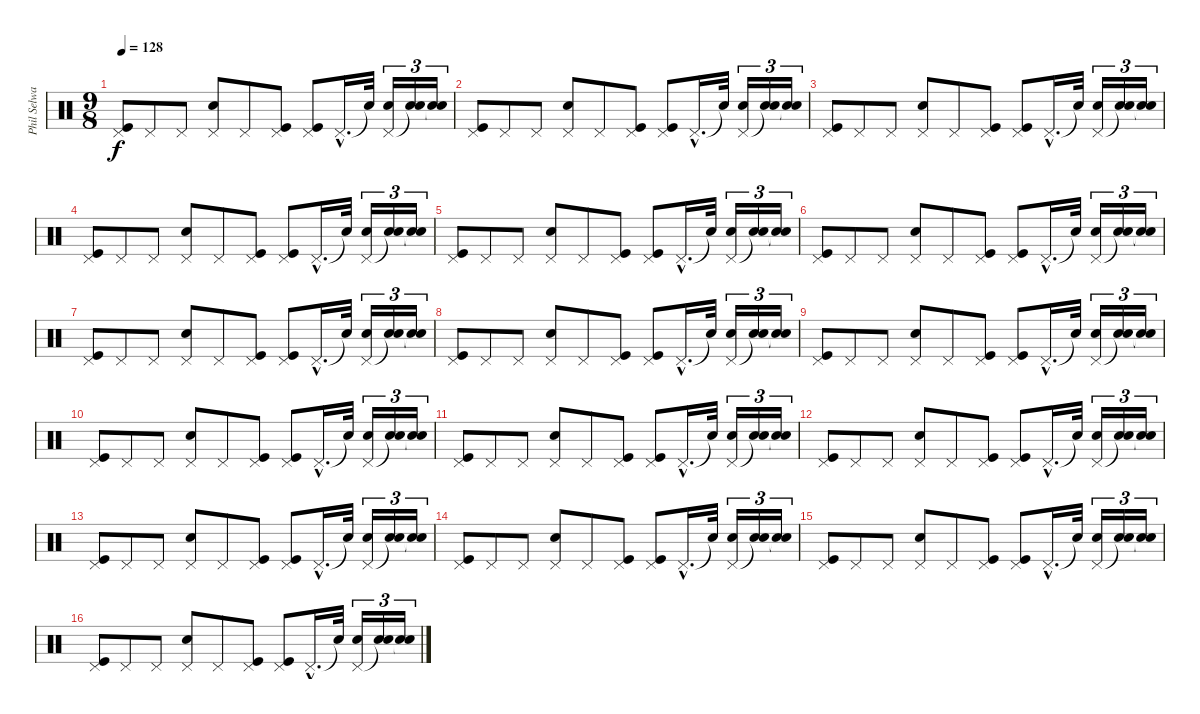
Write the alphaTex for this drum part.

\track ("Phil Selway - Drums" "Phil Selwa") {instrument percussion}
\staff {score}
\articulation defaults
\ts (9 8)
\tempo 128
\clef neutral
\ks c
("Pedal Hi-Hat (hit)" "Kick (hit)").8{dy f} "Pedal Hi-Hat (hit)".8 "Pedal Hi-Hat (hit)".8 ("Pedal Hi-Hat (hit)" "Snare (hit) 2").8 "Pedal Hi-Hat (hit)".8 ("Pedal Hi-Hat (hit)" "Kick (hit)").8 ("Pedal Hi-Hat (hit)" "Kick (hit)").8 "Pedal Hi-Hat (hit)"{hac}.16{d} "Snare (hit)"{t}.32 ("Pedal Hi-Hat (hit)" "Snare (hit) 2").16{tu (3 2)} ("Snare (hit)"{t} "Snare (hit) 2").16{tu (3 2)} ("Snare (hit)"{t} "Snare (hit) 2").16{tu (3 2)} |
("Pedal Hi-Hat (hit)" "Kick (hit)").8 "Pedal Hi-Hat (hit)".8 "Pedal Hi-Hat (hit)".8 ("Pedal Hi-Hat (hit)" "Snare (hit) 2").8 "Pedal Hi-Hat (hit)".8 ("Pedal Hi-Hat (hit)" "Kick (hit)").8 ("Pedal Hi-Hat (hit)" "Kick (hit)").8 "Pedal Hi-Hat (hit)"{hac}.16{d} "Snare (hit)"{t}.32 ("Pedal Hi-Hat (hit)" "Snare (hit) 2").16{tu (3 2)} ("Snare (hit)"{t} "Snare (hit) 2").16{tu (3 2)} ("Snare (hit)"{t} "Snare (hit) 2").16{tu (3 2)} |
("Pedal Hi-Hat (hit)" "Kick (hit)").8 "Pedal Hi-Hat (hit)".8 "Pedal Hi-Hat (hit)".8 ("Pedal Hi-Hat (hit)" "Snare (hit) 2").8 "Pedal Hi-Hat (hit)".8 ("Pedal Hi-Hat (hit)" "Kick (hit)").8 ("Pedal Hi-Hat (hit)" "Kick (hit)").8 "Pedal Hi-Hat (hit)"{hac}.16{d} "Snare (hit)"{t}.32 ("Pedal Hi-Hat (hit)" "Snare (hit) 2").16{tu (3 2)} ("Snare (hit)"{t} "Snare (hit) 2").16{tu (3 2)} ("Snare (hit)"{t} "Snare (hit) 2").16{tu (3 2)} |
("Pedal Hi-Hat (hit)" "Kick (hit)").8 "Pedal Hi-Hat (hit)".8 "Pedal Hi-Hat (hit)".8 ("Pedal Hi-Hat (hit)" "Snare (hit) 2").8 "Pedal Hi-Hat (hit)".8 ("Pedal Hi-Hat (hit)" "Kick (hit)").8 ("Pedal Hi-Hat (hit)" "Kick (hit)").8 "Pedal Hi-Hat (hit)"{hac}.16{d} "Snare (hit)"{t}.32 ("Pedal Hi-Hat (hit)" "Snare (hit) 2").16{tu (3 2)} ("Snare (hit)"{t} "Snare (hit) 2").16{tu (3 2)} ("Snare (hit)"{t} "Snare (hit) 2").16{tu (3 2)} |
("Pedal Hi-Hat (hit)" "Kick (hit)").8 "Pedal Hi-Hat (hit)".8 "Pedal Hi-Hat (hit)".8 ("Pedal Hi-Hat (hit)" "Snare (hit) 2").8 "Pedal Hi-Hat (hit)".8 ("Pedal Hi-Hat (hit)" "Kick (hit)").8 ("Pedal Hi-Hat (hit)" "Kick (hit)").8 "Pedal Hi-Hat (hit)"{hac}.16{d} "Snare (hit)"{t}.32 ("Pedal Hi-Hat (hit)" "Snare (hit) 2").16{tu (3 2)} ("Snare (hit)"{t} "Snare (hit) 2").16{tu (3 2)} ("Snare (hit)"{t} "Snare (hit) 2").16{tu (3 2)} |
("Pedal Hi-Hat (hit)" "Kick (hit)").8 "Pedal Hi-Hat (hit)".8 "Pedal Hi-Hat (hit)".8 ("Pedal Hi-Hat (hit)" "Snare (hit) 2").8 "Pedal Hi-Hat (hit)".8 ("Pedal Hi-Hat (hit)" "Kick (hit)").8 ("Pedal Hi-Hat (hit)" "Kick (hit)").8 "Pedal Hi-Hat (hit)"{hac}.16{d} "Snare (hit)"{t}.32 ("Pedal Hi-Hat (hit)" "Snare (hit) 2").16{tu (3 2)} ("Snare (hit)"{t} "Snare (hit) 2").16{tu (3 2)} ("Snare (hit)"{t} "Snare (hit) 2").16{tu (3 2)} |
("Pedal Hi-Hat (hit)" "Kick (hit)").8 "Pedal Hi-Hat (hit)".8 "Pedal Hi-Hat (hit)".8 ("Pedal Hi-Hat (hit)" "Snare (hit) 2").8 "Pedal Hi-Hat (hit)".8 ("Pedal Hi-Hat (hit)" "Kick (hit)").8 ("Pedal Hi-Hat (hit)" "Kick (hit)").8 "Pedal Hi-Hat (hit)"{hac}.16{d} "Snare (hit)"{t}.32 ("Pedal Hi-Hat (hit)" "Snare (hit) 2").16{tu (3 2)} ("Snare (hit)"{t} "Snare (hit) 2").16{tu (3 2)} ("Snare (hit)"{t} "Snare (hit) 2").16{tu (3 2)} |
("Pedal Hi-Hat (hit)" "Kick (hit)").8 "Pedal Hi-Hat (hit)".8 "Pedal Hi-Hat (hit)".8 ("Pedal Hi-Hat (hit)" "Snare (hit) 2").8 "Pedal Hi-Hat (hit)".8 ("Pedal Hi-Hat (hit)" "Kick (hit)").8 ("Pedal Hi-Hat (hit)" "Kick (hit)").8 "Pedal Hi-Hat (hit)"{hac}.16{d} "Snare (hit)"{t}.32 ("Pedal Hi-Hat (hit)" "Snare (hit) 2").16{tu (3 2)} ("Snare (hit)"{t} "Snare (hit) 2").16{tu (3 2)} ("Snare (hit)"{t} "Snare (hit) 2").16{tu (3 2)} |
("Pedal Hi-Hat (hit)" "Kick (hit)").8 "Pedal Hi-Hat (hit)".8 "Pedal Hi-Hat (hit)".8 ("Pedal Hi-Hat (hit)" "Snare (hit) 2").8 "Pedal Hi-Hat (hit)".8 ("Pedal Hi-Hat (hit)" "Kick (hit)").8 ("Pedal Hi-Hat (hit)" "Kick (hit)").8 "Pedal Hi-Hat (hit)"{hac}.16{d} "Snare (hit)"{t}.32 ("Pedal Hi-Hat (hit)" "Snare (hit) 2").16{tu (3 2)} ("Snare (hit)"{t} "Snare (hit) 2").16{tu (3 2)} ("Snare (hit)"{t} "Snare (hit) 2").16{tu (3 2)} |
("Pedal Hi-Hat (hit)" "Kick (hit)").8 "Pedal Hi-Hat (hit)".8 "Pedal Hi-Hat (hit)".8 ("Pedal Hi-Hat (hit)" "Snare (hit) 2").8 "Pedal Hi-Hat (hit)".8 ("Pedal Hi-Hat (hit)" "Kick (hit)").8 ("Pedal Hi-Hat (hit)" "Kick (hit)").8 "Pedal Hi-Hat (hit)"{hac}.16{d} "Snare (hit)"{t}.32 ("Pedal Hi-Hat (hit)" "Snare (hit) 2").16{tu (3 2)} ("Snare (hit)"{t} "Snare (hit) 2").16{tu (3 2)} ("Snare (hit)"{t} "Snare (hit) 2").16{tu (3 2)} |
("Pedal Hi-Hat (hit)" "Kick (hit)").8 "Pedal Hi-Hat (hit)".8 "Pedal Hi-Hat (hit)".8 ("Pedal Hi-Hat (hit)" "Snare (hit) 2").8 "Pedal Hi-Hat (hit)".8 ("Pedal Hi-Hat (hit)" "Kick (hit)").8 ("Pedal Hi-Hat (hit)" "Kick (hit)").8 "Pedal Hi-Hat (hit)"{hac}.16{d} "Snare (hit)"{t}.32 ("Pedal Hi-Hat (hit)" "Snare (hit) 2").16{tu (3 2)} ("Snare (hit)"{t} "Snare (hit) 2").16{tu (3 2)} ("Snare (hit)"{t} "Snare (hit) 2").16{tu (3 2)} |
("Pedal Hi-Hat (hit)" "Kick (hit)").8 "Pedal Hi-Hat (hit)".8 "Pedal Hi-Hat (hit)".8 ("Pedal Hi-Hat (hit)" "Snare (hit) 2").8 "Pedal Hi-Hat (hit)".8 ("Pedal Hi-Hat (hit)" "Kick (hit)").8 ("Pedal Hi-Hat (hit)" "Kick (hit)").8 "Pedal Hi-Hat (hit)"{hac}.16{d} "Snare (hit)"{t}.32 ("Pedal Hi-Hat (hit)" "Snare (hit) 2").16{tu (3 2)} ("Snare (hit)"{t} "Snare (hit) 2").16{tu (3 2)} ("Snare (hit)"{t} "Snare (hit) 2").16{tu (3 2)} |
("Pedal Hi-Hat (hit)" "Kick (hit)").8 "Pedal Hi-Hat (hit)".8 "Pedal Hi-Hat (hit)".8 ("Pedal Hi-Hat (hit)" "Snare (hit) 2").8 "Pedal Hi-Hat (hit)".8 ("Pedal Hi-Hat (hit)" "Kick (hit)").8 ("Pedal Hi-Hat (hit)" "Kick (hit)").8 "Pedal Hi-Hat (hit)"{hac}.16{d} "Snare (hit)"{t}.32 ("Pedal Hi-Hat (hit)" "Snare (hit) 2").16{tu (3 2)} ("Snare (hit)"{t} "Snare (hit) 2").16{tu (3 2)} ("Snare (hit)"{t} "Snare (hit) 2").16{tu (3 2)} |
("Pedal Hi-Hat (hit)" "Kick (hit)").8 "Pedal Hi-Hat (hit)".8 "Pedal Hi-Hat (hit)".8 ("Pedal Hi-Hat (hit)" "Snare (hit) 2").8 "Pedal Hi-Hat (hit)".8 ("Pedal Hi-Hat (hit)" "Kick (hit)").8 ("Pedal Hi-Hat (hit)" "Kick (hit)").8 "Pedal Hi-Hat (hit)"{hac}.16{d} "Snare (hit)"{t}.32 ("Pedal Hi-Hat (hit)" "Snare (hit) 2").16{tu (3 2)} ("Snare (hit)"{t} "Snare (hit) 2").16{tu (3 2)} ("Snare (hit)"{t} "Snare (hit) 2").16{tu (3 2)} |
("Pedal Hi-Hat (hit)" "Kick (hit)").8 "Pedal Hi-Hat (hit)".8 "Pedal Hi-Hat (hit)".8 ("Pedal Hi-Hat (hit)" "Snare (hit) 2").8 "Pedal Hi-Hat (hit)".8 ("Pedal Hi-Hat (hit)" "Kick (hit)").8 ("Pedal Hi-Hat (hit)" "Kick (hit)").8 "Pedal Hi-Hat (hit)"{hac}.16{d} "Snare (hit)"{t}.32 ("Pedal Hi-Hat (hit)" "Snare (hit) 2").16{tu (3 2)} ("Snare (hit)"{t} "Snare (hit) 2").16{tu (3 2)} ("Snare (hit)"{t} "Snare (hit) 2").16{tu (3 2)} |
("Pedal Hi-Hat (hit)" "Kick (hit)").8 "Pedal Hi-Hat (hit)".8 "Pedal Hi-Hat (hit)".8 ("Pedal Hi-Hat (hit)" "Snare (hit) 2").8 "Pedal Hi-Hat (hit)".8 ("Pedal Hi-Hat (hit)" "Kick (hit)").8 ("Pedal Hi-Hat (hit)" "Kick (hit)").8 "Pedal Hi-Hat (hit)"{hac}.16{d} "Snare (hit)"{t}.32 ("Pedal Hi-Hat (hit)" "Snare (hit) 2").16{tu (3 2)} ("Snare (hit)"{t} "Snare (hit) 2").16{tu (3 2)} ("Snare (hit)"{t} "Snare (hit) 2").16{tu (3 2)}
